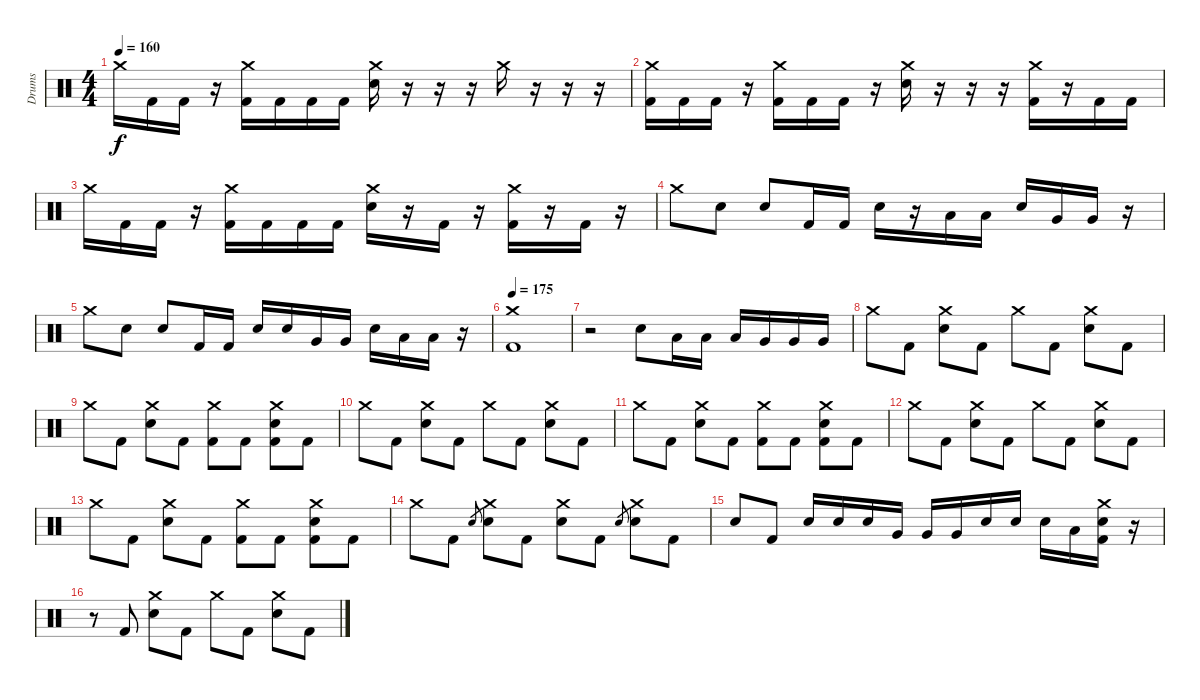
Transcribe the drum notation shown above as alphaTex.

\track ("Drums" "Drums") {instrument percussion}
\staff {score}
\articulation defaults
\ts (4 4)
\tempo 160
\clef neutral
\ks c "Crash medium (hit)".16{dy f} "Kick (hit) 2".16 "Kick (hit) 2".16
r.16 ("Crash medium (hit)" "Kick (hit) 2").16 "Kick (hit) 2".16 "Kick (hit) 2".16 "Kick (hit) 2".16 ("Crash medium (hit)" "Electric Snare (hit)").16 r.16 r.16 r.16 "Crash medium (hit)".16 r.16 r.16 r.16 |
("Crash medium (hit)" "Kick (hit) 2").16 "Kick (hit) 2".16 "Kick (hit) 2".16 r.16 ("Crash medium (hit)" "Kick (hit) 2").16 "Kick (hit) 2".16 "Kick (hit) 2".16 r.16 ("Crash medium (hit)" "Electric Snare (hit)").16 r.16 r.16 r.16 ("Crash medium (hit)" "Kick (hit) 2").16 r.16 "Kick (hit) 2".16 "Kick (hit) 2".16 |
"Crash medium (hit)".16 "Kick (hit) 2".16 "Kick (hit) 2".16 r.16 ("Crash medium (hit)" "Kick (hit) 2").16 "Kick (hit) 2".16 "Kick (hit) 2".16 "Kick (hit) 2".16 ("Crash medium (hit)" "Electric Snare (hit)").16 r.16 "Kick (hit) 2".16 r.16 ("Crash medium (hit)" "Kick (hit) 2").16 r.16 "Kick (hit) 2".16 r.16 |
"Crash medium (hit)".8 "Electric Snare (hit)".8 "Electric Snare (hit)".8 "Kick (hit) 2".16 "Kick (hit) 2".16 "Electric Snare (hit)".16 r.16 "Low Tom (hit)".16 "Low Tom (hit)".16 "Electric Snare (hit)".16 "Very Low Tom (hit)".16 "Very Low Tom (hit)".16 r.16 |
"Crash medium (hit)".8 "Electric Snare (hit)".8 "Electric Snare (hit)".8 "Kick (hit) 2".16 "Kick (hit) 2".16 "Electric Snare (hit)".16 "Electric Snare (hit)".16 "Very Low Tom (hit)".16 "Very Low Tom (hit)".16 "Electric Snare (hit)".16 "Low Floor Tom (hit)".16 "Low Floor Tom (hit)".16 r.16 |
\tempo 175
("Crash medium (hit)" "Kick (hit) 2").1 |
r.2 "Electric Snare (hit)".8 "Low Tom (hit)".16 "Low Tom (hit)".16 "Low Tom (hit)".16 "Very Low Tom (hit)".16 "Very Low Tom (hit)".16 "Very Low Tom (hit)".16 |
"Crash medium (hit)".8 "Kick (hit) 2".8 ("Crash medium (hit)" "Electric Snare (hit)").8 "Kick (hit) 2".8 "Crash medium (hit)".8 "Kick (hit) 2".8 ("Crash medium (hit)" "Electric Snare (hit)").8 "Kick (hit) 2".8 |
"Crash medium (hit)".8 "Kick (hit) 2".8 ("Crash medium (hit)" "Electric Snare (hit)").8 "Kick (hit) 2".8 ("Crash medium (hit)" "Kick (hit) 2").8 "Kick (hit) 2".8 ("Crash medium (hit)" "Electric Snare (hit)" "Kick (hit) 2").8 "Kick (hit) 2".8 |
"Crash medium (hit)".8 "Kick (hit) 2".8 ("Crash medium (hit)" "Electric Snare (hit)").8 "Kick (hit) 2".8 "Crash medium (hit)".8 "Kick (hit) 2".8 ("Crash medium (hit)" "Electric Snare (hit)").8 "Kick (hit) 2".8 |
"Crash medium (hit)".8 "Kick (hit) 2".8 ("Crash medium (hit)" "Electric Snare (hit)").8 "Kick (hit) 2".8 ("Crash medium (hit)" "Kick (hit) 2").8 "Kick (hit) 2".8 ("Crash medium (hit)" "Electric Snare (hit)" "Kick (hit) 2").8 "Kick (hit) 2".8 |
"Crash medium (hit)".8 "Kick (hit) 2".8 ("Crash medium (hit)" "Electric Snare (hit)").8 "Kick (hit) 2".8 "Crash medium (hit)".8 "Kick (hit) 2".8 ("Crash medium (hit)" "Electric Snare (hit)").8 "Kick (hit) 2".8 |
"Crash medium (hit)".8 "Kick (hit) 2".8 ("Crash medium (hit)" "Electric Snare (hit)").8 "Kick (hit) 2".8 ("Crash medium (hit)" "Kick (hit) 2").8 "Kick (hit) 2".8 ("Crash medium (hit)" "Electric Snare (hit)" "Kick (hit) 2").8 "Kick (hit) 2".8 |
"Crash medium (hit)".8 "Kick (hit) 2".8 "Electric Snare (hit)".8{gr} ("Crash medium (hit)" "Electric Snare (hit)").8 "Kick (hit) 2".8 ("Crash medium (hit)" "Electric Snare (hit)").8 "Kick (hit) 2".8 "Electric Snare (hit)".8{gr} ("Crash medium (hit)" "Electric Snare (hit)").8 "Kick (hit) 2".8 |
"Electric Snare (hit)".8 "Kick (hit) 2".8 "Electric Snare (hit)".16 "Electric Snare (hit)".16 "Electric Snare (hit)".16 "Very Low Tom (hit)".16 "Very Low Tom (hit)".16 "Very Low Tom (hit)".16 "Electric Snare (hit)".16 "Electric Snare (hit)".16 "Electric Snare (hit)".16 "Low Tom (hit)".16 ("Crash medium (hit)" "Electric Snare (hit)" "Kick (hit) 2").16 r.16 |
r.8 "Kick (hit) 2".8 ("Crash medium (hit)" "Electric Snare (hit)").8 "Kick (hit) 2".8 "Crash medium (hit)".8 "Kick (hit) 2".8 ("Crash medium (hit)" "Electric Snare (hit)").8 "Kick (hit) 2".8
